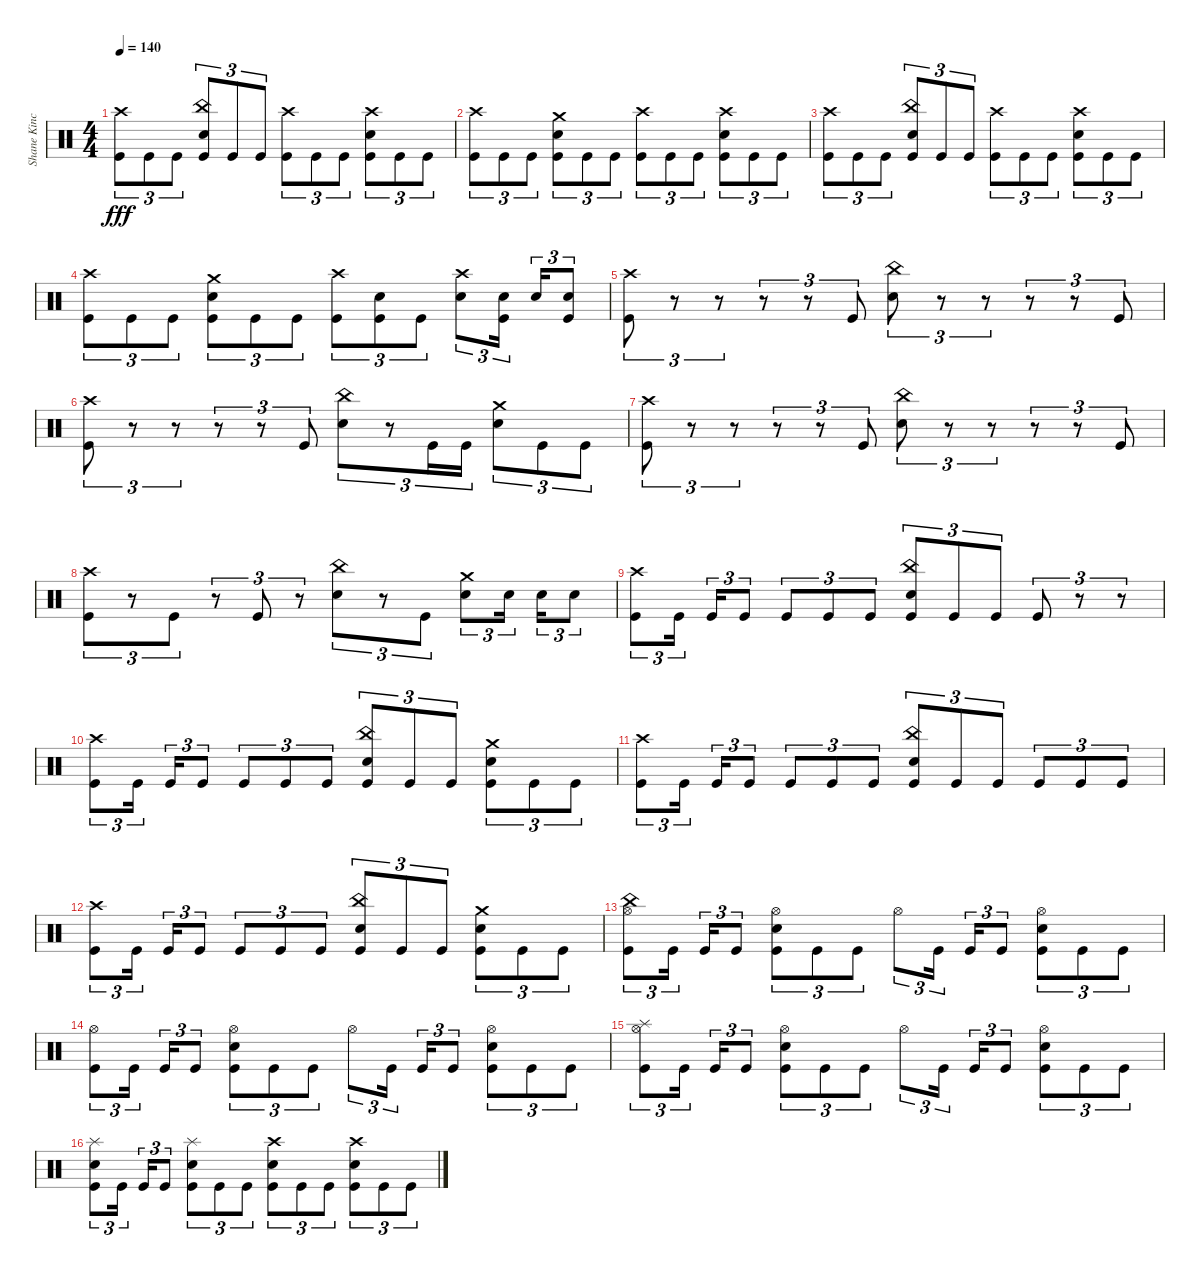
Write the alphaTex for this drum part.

\track ("Shane Kincaid" "Shane Kinc") {instrument percussion}
\staff {score}
\articulation defaults
\ts (4 4)
\tempo 140
\clef neutral
\ks c
("Crash high (hit)" "Kick (hit)").8{tu (3 2) dy fff} "Kick (hit)".8{tu (3 2)} "Kick (hit)".8{tu (3 2)} ("China (hit)" "Electric Snare (hit)" "Kick (hit)").8{tu (3 2)} "Kick (hit)".8{tu (3 2)} "Kick (hit)".8{tu (3 2)} ("Crash high (hit)" "Kick (hit)").8{tu (3 2)} "Kick (hit)".8{tu (3 2)} "Kick (hit)".8{tu (3 2)} ("Crash high (hit)" "Electric Snare (hit)" "Kick (hit)").8{tu (3 2)} "Kick (hit)".8{tu (3 2)} "Kick (hit)".8{tu (3 2)} |
("Crash high (hit)" "Kick (hit)").8{tu (3 2)} "Kick (hit)".8{tu (3 2)} "Kick (hit)".8{tu (3 2)} ("Crash medium (hit)" "Electric Snare (hit)" "Kick (hit)").8{tu (3 2)} "Kick (hit)".8{tu (3 2)} "Kick (hit)".8{tu (3 2)} ("Crash high (hit)" "Kick (hit)").8{tu (3 2)} "Kick (hit)".8{tu (3 2)} "Kick (hit)".8{tu (3 2)} ("Crash high (hit)" "Electric Snare (hit)" "Kick (hit)").8{tu (3 2)} "Kick (hit)".8{tu (3 2)} "Kick (hit)".8{tu (3 2)} |
("Crash high (hit)" "Kick (hit)").8{tu (3 2)} "Kick (hit)".8{tu (3 2)} "Kick (hit)".8{tu (3 2)} ("China (hit)" "Electric Snare (hit)" "Kick (hit)").8{tu (3 2)} "Kick (hit)".8{tu (3 2)} "Kick (hit)".8{tu (3 2)} ("Crash high (hit)" "Kick (hit)").8{tu (3 2)} "Kick (hit)".8{tu (3 2)} "Kick (hit)".8{tu (3 2)} ("Crash high (hit)" "Electric Snare (hit)" "Kick (hit)").8{tu (3 2)} "Kick (hit)".8{tu (3 2)} "Kick (hit)".8{tu (3 2)} |
("Crash high (hit)" "Kick (hit)").8{tu (3 2)} "Kick (hit)".8{tu (3 2)} "Kick (hit)".8{tu (3 2)} ("Crash medium (hit)" "Kick (hit)" "Electric Snare (hit)").8{tu (3 2)} "Kick (hit)".8{tu (3 2)} "Kick (hit)".8{tu (3 2)} ("Crash high (hit)" "Kick (hit)").8{tu (3 2)} ("Kick (hit)" "Electric Snare (hit)").8{tu (3 2)} "Kick (hit)".8{tu (3 2)} ("Crash high (hit)" "Electric Snare (hit)").8{tu (3 2)} ("Electric Snare (hit)" "Kick (hit)").16{tu (3 2) beam splitsecondary} "Electric Snare (hit)".16{tu (3 2)} ("Electric Snare (hit)" "Kick (hit)").8{tu (3 2)} |
("Crash high (hit)" "Kick (hit)").8{tu (3 2)} r.8{tu (3 2)} r.8{tu (3 2)} r.8{tu (3 2)} r.8{tu (3 2)} "Kick (hit)".8{tu (3 2)} ("China (hit)" "Electric Snare (hit)").8{tu (3 2)} r.8{tu (3 2)} r.8{tu (3 2)} r.8{tu (3 2)} r.8{tu (3 2)} "Kick (hit)".8{tu (3 2)} |
("Crash high (hit)" "Kick (hit)").8{tu (3 2)} r.8{tu (3 2)} r.8{tu (3 2)} r.8{tu (3 2)} r.8{tu (3 2)} "Kick (hit)".8{tu (3 2)} ("China (hit)" "Electric Snare (hit)").8{tu (3 2)} r.8{tu (3 2)} "Kick (hit)".16{tu (3 2)} "Kick (hit)".16{tu (3 2)} ("Crash medium (hit)" "Electric Snare (hit)").8{tu (3 2)} "Kick (hit)".8{tu (3 2)} "Kick (hit)".8{tu (3 2)} |
("Crash high (hit)" "Kick (hit)").8{tu (3 2)} r.8{tu (3 2)} r.8{tu (3 2)} r.8{tu (3 2)} r.8{tu (3 2)} "Kick (hit)".8{tu (3 2)} ("China (hit)" "Electric Snare (hit)").8{tu (3 2)} r.8{tu (3 2)} r.8{tu (3 2)} r.8{tu (3 2)} r.8{tu (3 2)} "Kick (hit)".8{tu (3 2)} |
("Crash high (hit)" "Kick (hit)").8{tu (3 2)} r.8{tu (3 2)} "Kick (hit)".8{tu (3 2)} r.8{tu (3 2)} "Kick (hit)".8{tu (3 2)} r.8{tu (3 2)} ("China (hit)" "Electric Snare (hit)").8{tu (3 2)} r.8{tu (3 2)} "Kick (hit)".8{tu (3 2)} ("Crash medium (hit)" "Electric Snare (hit)").8{tu (3 2)} "Electric Snare (hit)".16{tu (3 2) beam splitsecondary} "Electric Snare (hit)".16{tu (3 2)} "Electric Snare (hit)".8{tu (3 2)} |
("Crash high (hit)" "Kick (hit)").8{tu (3 2)} "Kick (hit)".16{tu (3 2) beam splitsecondary} "Kick (hit)".16{tu (3 2)} "Kick (hit)".8{tu (3 2)} "Kick (hit)".8{tu (3 2)} "Kick (hit)".8{tu (3 2)} "Kick (hit)".8{tu (3 2)} ("China (hit)" "Kick (hit)" "Electric Snare (hit)").8{tu (3 2)} "Kick (hit)".8{tu (3 2)} "Kick (hit)".8{tu (3 2)} "Kick (hit)".8{tu (3 2)} r.8{tu (3 2)} r.8{tu (3 2)} |
("Crash high (hit)" "Kick (hit)").8{tu (3 2)} "Kick (hit)".16{tu (3 2) beam splitsecondary} "Kick (hit)".16{tu (3 2)} "Kick (hit)".8{tu (3 2)} "Kick (hit)".8{tu (3 2)} "Kick (hit)".8{tu (3 2)} "Kick (hit)".8{tu (3 2)} ("China (hit)" "Kick (hit)" "Electric Snare (hit)").8{tu (3 2)} "Kick (hit)".8{tu (3 2)} "Kick (hit)".8{tu (3 2)} ("Crash medium (hit)" "Kick (hit)" "Electric Snare (hit)").8{tu (3 2)} "Kick (hit)".8{tu (3 2)} "Kick (hit)".8{tu (3 2)} |
("Crash high (hit)" "Kick (hit)").8{tu (3 2)} "Kick (hit)".16{tu (3 2) beam splitsecondary} "Kick (hit)".16{tu (3 2)} "Kick (hit)".8{tu (3 2)} "Kick (hit)".8{tu (3 2)} "Kick (hit)".8{tu (3 2)} "Kick (hit)".8{tu (3 2)} ("China (hit)" "Kick (hit)" "Electric Snare (hit)").8{tu (3 2)} "Kick (hit)".8{tu (3 2)} "Kick (hit)".8{tu (3 2)} "Kick (hit)".8{tu (3 2)} "Kick (hit)".8{tu (3 2)} "Kick (hit)".8{tu (3 2)} |
("Crash high (hit)" "Kick (hit)").8{tu (3 2)} "Kick (hit)".16{tu (3 2) beam splitsecondary} "Kick (hit)".16{tu (3 2)} "Kick (hit)".8{tu (3 2)} "Kick (hit)".8{tu (3 2)} "Kick (hit)".8{tu (3 2)} "Kick (hit)".8{tu (3 2)} ("China (hit)" "Kick (hit)" "Electric Snare (hit)").8{tu (3 2)} "Kick (hit)".8{tu (3 2)} "Kick (hit)".8{tu (3 2)} ("Crash medium (hit)" "Electric Snare (hit)" "Kick (hit)").8{tu (3 2)} "Kick (hit)".8{tu (3 2)} "Kick (hit)".8{tu (3 2)} |
("China (hit)" "Hi-Hat (open)" "Kick (hit)").8{tu (3 2)} "Kick (hit)".16{tu (3 2) beam splitsecondary} "Kick (hit)".16{tu (3 2)} "Kick (hit)".8{tu (3 2)} ("Hi-Hat (open)" "Electric Snare (hit)" "Kick (hit)").8{tu (3 2)} "Kick (hit)".8{tu (3 2)} "Kick (hit)".8{tu (3 2)} "Hi-Hat (open)".8{tu (3 2)} "Kick (hit)".16{tu (3 2) beam splitsecondary} "Kick (hit)".16{tu (3 2)} "Kick (hit)".8{tu (3 2)} ("Hi-Hat (open)" "Electric Snare (hit)" "Kick (hit)").8{tu (3 2)} "Kick (hit)".8{tu (3 2)} "Kick (hit)".8{tu (3 2)} |
("Hi-Hat (open)" "Kick (hit)").8{tu (3 2)} "Kick (hit)".16{tu (3 2) beam splitsecondary} "Kick (hit)".16{tu (3 2)} "Kick (hit)".8{tu (3 2)} ("Hi-Hat (open)" "Electric Snare (hit)" "Kick (hit)").8{tu (3 2)} "Kick (hit)".8{tu (3 2)} "Kick (hit)".8{tu (3 2)} "Hi-Hat (open)".8{tu (3 2)} "Kick (hit)".16{tu (3 2) beam splitsecondary} "Kick (hit)".16{tu (3 2)} "Kick (hit)".8{tu (3 2)} ("Hi-Hat (open)" "Electric Snare (hit)" "Kick (hit)").8{tu (3 2)} "Kick (hit)".8{tu (3 2)} "Kick (hit)".8{tu (3 2)} |
("Splash (hit)" "Hi-Hat (open)" "Kick (hit)").8{tu (3 2)} "Kick (hit)".16{tu (3 2) beam splitsecondary} "Kick (hit)".16{tu (3 2)} "Kick (hit)".8{tu (3 2)} ("Hi-Hat (open)" "Electric Snare (hit)" "Kick (hit)").8{tu (3 2)} "Kick (hit)".8{tu (3 2)} "Kick (hit)".8{tu (3 2)} "Hi-Hat (open)".8{tu (3 2)} "Kick (hit)".16{tu (3 2) beam splitsecondary} "Kick (hit)".16{tu (3 2)} "Kick (hit)".8{tu (3 2)} ("Hi-Hat (open)" "Electric Snare (hit)" "Kick (hit)").8{tu (3 2)} "Kick (hit)".8{tu (3 2)} "Kick (hit)".8{tu (3 2)} |
("Splash (hit)" "Electric Snare (hit)" "Kick (hit)").8{tu (3 2)} "Kick (hit)".16{tu (3 2) beam splitsecondary} "Kick (hit)".16{tu (3 2)} "Kick (hit)".8{tu (3 2)} ("Splash (hit)" "Electric Snare (hit)" "Kick (hit)").8{tu (3 2)} "Kick (hit)".8{tu (3 2)} "Kick (hit)".8{tu (3 2)} ("Crash high (hit)" "Electric Snare (hit)" "Kick (hit)").8{tu (3 2)} "Kick (hit)".8{tu (3 2)} "Kick (hit)".8{tu (3 2)} ("Crash high (hit)" "Electric Snare (hit)" "Kick (hit)").8{tu (3 2)} "Kick (hit)".8{tu (3 2)} "Kick (hit)".8{tu (3 2)}
